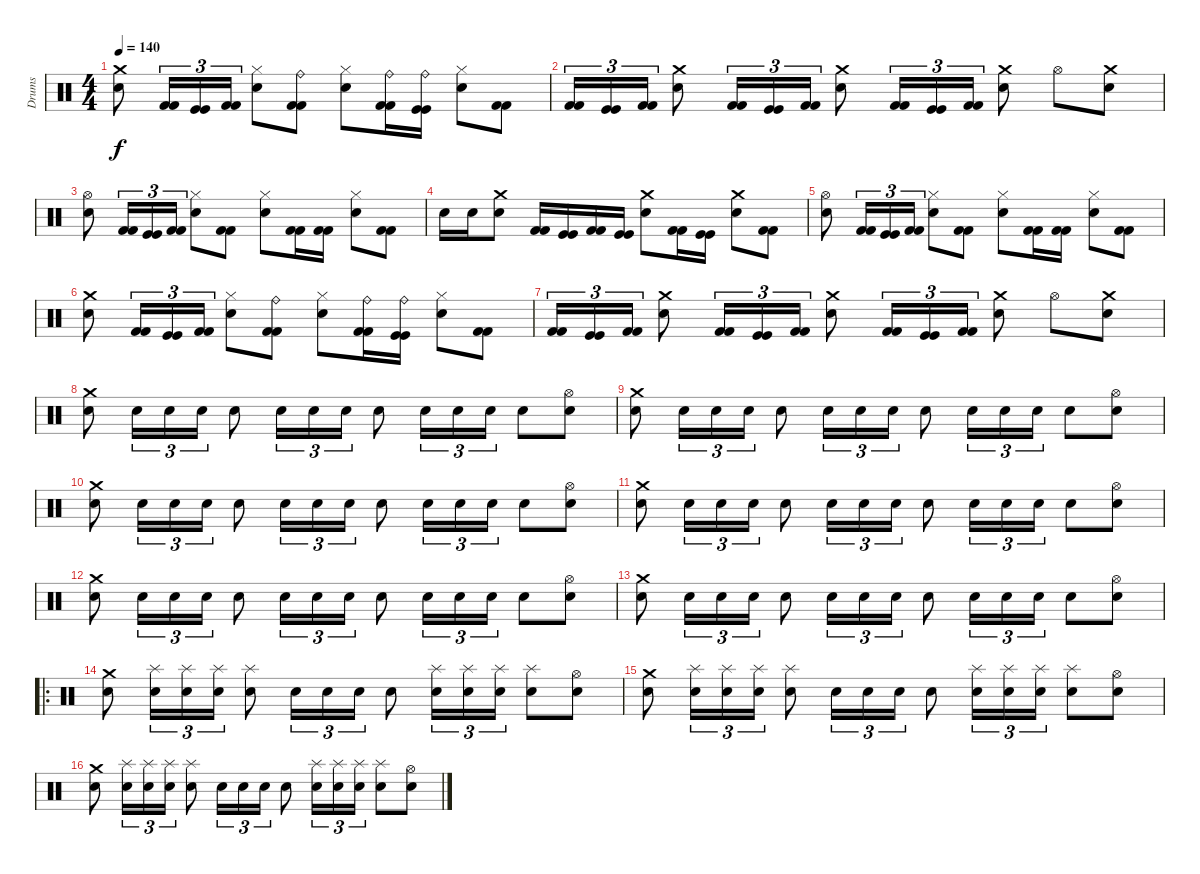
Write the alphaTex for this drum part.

\track ("Drums" "Drums") {instrument percussion}
\staff {score}
\articulation defaults
\ts (4 4)
\tempo 140
\clef neutral
\ks c
("Crash medium (hit)" "Snare (hit) 2").8{dy f} ("Kick (hit) 2" "Kick (hit) 2").16{tu (3 2)} ("Kick (hit)" "Kick (hit)").16{tu (3 2)} ("Kick (hit) 2" "Kick (hit) 2").16{tu (3 2)} ("Hi-Hat (closed)" "Snare (hit) 2").8 ("Ride (bell)" "Kick (hit) 2" "Kick (hit) 2").8 ("Hi-Hat (closed)" "Snare (hit) 2").8 ("Ride (bell)" "Kick (hit) 2" "Kick (hit) 2").16 ("Ride (bell)" "Kick (hit)" "Kick (hit)").16 ("Hi-Hat (closed)" "Snare (hit) 2").8 ("Kick (hit) 2" "Kick (hit) 2").8 |
("Kick (hit) 2" "Kick (hit) 2").16{tu (3 2)} ("Kick (hit)" "Kick (hit)").16{tu (3 2)} ("Kick (hit) 2" "Kick (hit) 2").16{tu (3 2)} ("Crash medium (hit)" "Snare (hit) 2").8 ("Kick (hit) 2" "Kick (hit) 2").16{tu (3 2)} ("Kick (hit)" "Kick (hit)").16{tu (3 2)} ("Kick (hit) 2" "Kick (hit) 2").16{tu (3 2)} ("Crash medium (hit)" "Snare (hit) 2").8 ("Kick (hit) 2" "Kick (hit) 2").16{tu (3 2)} ("Kick (hit)" "Kick (hit)").16{tu (3 2)} ("Kick (hit) 2" "Kick (hit) 2").16{tu (3 2)} ("Crash medium (hit)" "Snare (hit) 2").8 "Hi-Hat (open)".8 ("Crash medium (hit)" "Snare (hit) 2").8 |
("Hi-Hat (open)" "Snare (hit) 2").8 ("Kick (hit) 2" "Kick (hit) 2").16{tu (3 2)} ("Kick (hit)" "Kick (hit)").16{tu (3 2)} ("Kick (hit) 2" "Kick (hit) 2").16{tu (3 2)} ("Hi-Hat (closed)" "Snare (hit) 2").8 ("Kick (hit) 2" "Kick (hit) 2").8 ("Hi-Hat (closed)" "Snare (hit) 2").8 ("Kick (hit) 2" "Kick (hit) 2").16 ("Kick (hit) 2" "Kick (hit) 2").16 ("Hi-Hat (closed)" "Snare (hit) 2").8 ("Kick (hit) 2" "Kick (hit) 2").8 |
"Snare (hit) 2".16 "Snare (hit) 2".16 ("Crash medium (hit)" "Snare (hit) 2").8 ("Kick (hit) 2" "Kick (hit) 2").16 ("Kick (hit)" "Kick (hit)").16 ("Kick (hit) 2" "Kick (hit) 2").16 ("Kick (hit)" "Kick (hit)").16 ("Crash medium (hit)" "Snare (hit) 2").8 ("Kick (hit) 2" "Kick (hit) 2").16 ("Kick (hit)" "Kick (hit)").16 ("Crash medium (hit)" "Snare (hit) 2").8 ("Kick (hit) 2" "Kick (hit) 2").8 |
("Hi-Hat (open)" "Snare (hit) 2").8 ("Kick (hit) 2" "Kick (hit) 2").16{tu (3 2)} ("Kick (hit)" "Kick (hit)").16{tu (3 2)} ("Kick (hit) 2" "Kick (hit) 2").16{tu (3 2)} ("Hi-Hat (closed)" "Snare (hit) 2").8 ("Kick (hit) 2" "Kick (hit) 2").8 ("Hi-Hat (closed)" "Snare (hit) 2").8 ("Kick (hit) 2" "Kick (hit) 2").16 ("Kick (hit) 2" "Kick (hit) 2").16 ("Hi-Hat (closed)" "Snare (hit) 2").8 ("Kick (hit) 2" "Kick (hit) 2").8 |
("Crash medium (hit)" "Snare (hit) 2").8 ("Kick (hit) 2" "Kick (hit) 2").16{tu (3 2)} ("Kick (hit)" "Kick (hit)").16{tu (3 2)} ("Kick (hit) 2" "Kick (hit) 2").16{tu (3 2)} ("Hi-Hat (closed)" "Snare (hit) 2").8 ("Ride (bell)" "Kick (hit) 2" "Kick (hit) 2").8 ("Hi-Hat (closed)" "Snare (hit) 2").8 ("Ride (bell)" "Kick (hit) 2" "Kick (hit) 2").16 ("Ride (bell)" "Kick (hit)" "Kick (hit)").16 ("Hi-Hat (closed)" "Snare (hit) 2").8 ("Kick (hit) 2" "Kick (hit) 2").8 |
("Kick (hit) 2" "Kick (hit) 2").16{tu (3 2)} ("Kick (hit)" "Kick (hit)").16{tu (3 2)} ("Kick (hit) 2" "Kick (hit) 2").16{tu (3 2)} ("Crash medium (hit)" "Snare (hit) 2").8 ("Kick (hit) 2" "Kick (hit) 2").16{tu (3 2)} ("Kick (hit)" "Kick (hit)").16{tu (3 2)} ("Kick (hit) 2" "Kick (hit) 2").16{tu (3 2)} ("Crash medium (hit)" "Snare (hit) 2").8 ("Kick (hit) 2" "Kick (hit) 2").16{tu (3 2)} ("Kick (hit)" "Kick (hit)").16{tu (3 2)} ("Kick (hit) 2" "Kick (hit) 2").16{tu (3 2)} ("Crash medium (hit)" "Snare (hit) 2").8 "Hi-Hat (open)".8 ("Crash medium (hit)" "Snare (hit) 2").8 |
("Crash medium (hit)" "Snare (hit) 2").8 "Snare (hit) 2".16{tu (3 2)} "Snare (hit) 2".16{tu (3 2)} "Snare (hit) 2".16{tu (3 2)} "Snare (hit) 2".8 "Snare (hit) 2".16{tu (3 2)} "Snare (hit) 2".16{tu (3 2)} "Snare (hit) 2".16{tu (3 2)} "Snare (hit) 2".8 "Snare (hit) 2".16{tu (3 2)} "Snare (hit) 2".16{tu (3 2)} "Snare (hit) 2".16{tu (3 2)} "Snare (hit) 2".8 ("Hi-Hat (open)" "Snare (hit) 2").8 |
("Crash medium (hit)" "Snare (hit) 2").8 "Snare (hit) 2".16{tu (3 2)} "Snare (hit) 2".16{tu (3 2)} "Snare (hit) 2".16{tu (3 2)} "Snare (hit) 2".8 "Snare (hit) 2".16{tu (3 2)} "Snare (hit) 2".16{tu (3 2)} "Snare (hit) 2".16{tu (3 2)} "Snare (hit) 2".8 "Snare (hit) 2".16{tu (3 2)} "Snare (hit) 2".16{tu (3 2)} "Snare (hit) 2".16{tu (3 2)} "Snare (hit) 2".8 ("Hi-Hat (open)" "Snare (hit) 2").8 |
("Crash medium (hit)" "Snare (hit) 2").8 "Snare (hit) 2".16{tu (3 2)} "Snare (hit) 2".16{tu (3 2)} "Snare (hit) 2".16{tu (3 2)} "Snare (hit) 2".8 "Snare (hit) 2".16{tu (3 2)} "Snare (hit) 2".16{tu (3 2)} "Snare (hit) 2".16{tu (3 2)} "Snare (hit) 2".8 "Snare (hit) 2".16{tu (3 2)} "Snare (hit) 2".16{tu (3 2)} "Snare (hit) 2".16{tu (3 2)} "Snare (hit) 2".8 ("Hi-Hat (open)" "Snare (hit) 2").8 |
("Crash medium (hit)" "Snare (hit) 2").8 "Snare (hit) 2".16{tu (3 2)} "Snare (hit) 2".16{tu (3 2)} "Snare (hit) 2".16{tu (3 2)} "Snare (hit) 2".8 "Snare (hit) 2".16{tu (3 2)} "Snare (hit) 2".16{tu (3 2)} "Snare (hit) 2".16{tu (3 2)} "Snare (hit) 2".8 "Snare (hit) 2".16{tu (3 2)} "Snare (hit) 2".16{tu (3 2)} "Snare (hit) 2".16{tu (3 2)} "Snare (hit) 2".8 ("Hi-Hat (open)" "Snare (hit) 2").8 |
("Crash medium (hit)" "Snare (hit) 2").8 "Snare (hit) 2".16{tu (3 2)} "Snare (hit) 2".16{tu (3 2)} "Snare (hit) 2".16{tu (3 2)} "Snare (hit) 2".8 "Snare (hit) 2".16{tu (3 2)} "Snare (hit) 2".16{tu (3 2)} "Snare (hit) 2".16{tu (3 2)} "Snare (hit) 2".8 "Snare (hit) 2".16{tu (3 2)} "Snare (hit) 2".16{tu (3 2)} "Snare (hit) 2".16{tu (3 2)} "Snare (hit) 2".8 ("Hi-Hat (open)" "Snare (hit) 2").8 |
("Crash medium (hit)" "Snare (hit) 2").8 "Snare (hit) 2".16{tu (3 2)} "Snare (hit) 2".16{tu (3 2)} "Snare (hit) 2".16{tu (3 2)} "Snare (hit) 2".8 "Snare (hit) 2".16{tu (3 2)} "Snare (hit) 2".16{tu (3 2)} "Snare (hit) 2".16{tu (3 2)} "Snare (hit) 2".8 "Snare (hit) 2".16{tu (3 2)} "Snare (hit) 2".16{tu (3 2)} "Snare (hit) 2".16{tu (3 2)} "Snare (hit) 2".8 ("Hi-Hat (open)" "Snare (hit) 2").8 |
\ro
("Crash medium (hit)" "Snare (hit) 2").8 ("Splash (hit)" "Snare (hit) 2").16{tu (3 2)} ("Splash (hit)" "Snare (hit) 2").16{tu (3 2)} ("Splash (hit)" "Snare (hit) 2").16{tu (3 2)} ("Splash (hit)" "Snare (hit) 2").8 "Snare (hit) 2".16{tu (3 2)} "Snare (hit) 2".16{tu (3 2)} "Snare (hit) 2".16{tu (3 2)} "Snare (hit) 2".8 ("Splash (hit)" "Snare (hit) 2").16{tu (3 2)} ("Splash (hit)" "Snare (hit) 2").16{tu (3 2)} ("Splash (hit)" "Snare (hit) 2").16{tu (3 2)} ("Splash (hit)" "Snare (hit) 2").8 ("Hi-Hat (open)" "Snare (hit) 2").8 |
("Crash medium (hit)" "Snare (hit) 2").8 ("Splash (hit)" "Snare (hit) 2").16{tu (3 2)} ("Splash (hit)" "Snare (hit) 2").16{tu (3 2)} ("Splash (hit)" "Snare (hit) 2").16{tu (3 2)} ("Splash (hit)" "Snare (hit) 2").8 "Snare (hit) 2".16{tu (3 2)} "Snare (hit) 2".16{tu (3 2)} "Snare (hit) 2".16{tu (3 2)} "Snare (hit) 2".8 ("Splash (hit)" "Snare (hit) 2").16{tu (3 2)} ("Splash (hit)" "Snare (hit) 2").16{tu (3 2)} ("Splash (hit)" "Snare (hit) 2").16{tu (3 2)} ("Splash (hit)" "Snare (hit) 2").8 ("Hi-Hat (open)" "Snare (hit) 2").8 |
("Crash medium (hit)" "Snare (hit) 2").8 ("Splash (hit)" "Snare (hit) 2").16{tu (3 2)} ("Splash (hit)" "Snare (hit) 2").16{tu (3 2)} ("Splash (hit)" "Snare (hit) 2").16{tu (3 2)} ("Splash (hit)" "Snare (hit) 2").8 "Snare (hit) 2".16{tu (3 2)} "Snare (hit) 2".16{tu (3 2)} "Snare (hit) 2".16{tu (3 2)} "Snare (hit) 2".8 ("Splash (hit)" "Snare (hit) 2").16{tu (3 2)} ("Splash (hit)" "Snare (hit) 2").16{tu (3 2)} ("Splash (hit)" "Snare (hit) 2").16{tu (3 2)} ("Splash (hit)" "Snare (hit) 2").8 ("Hi-Hat (open)" "Snare (hit) 2").8
